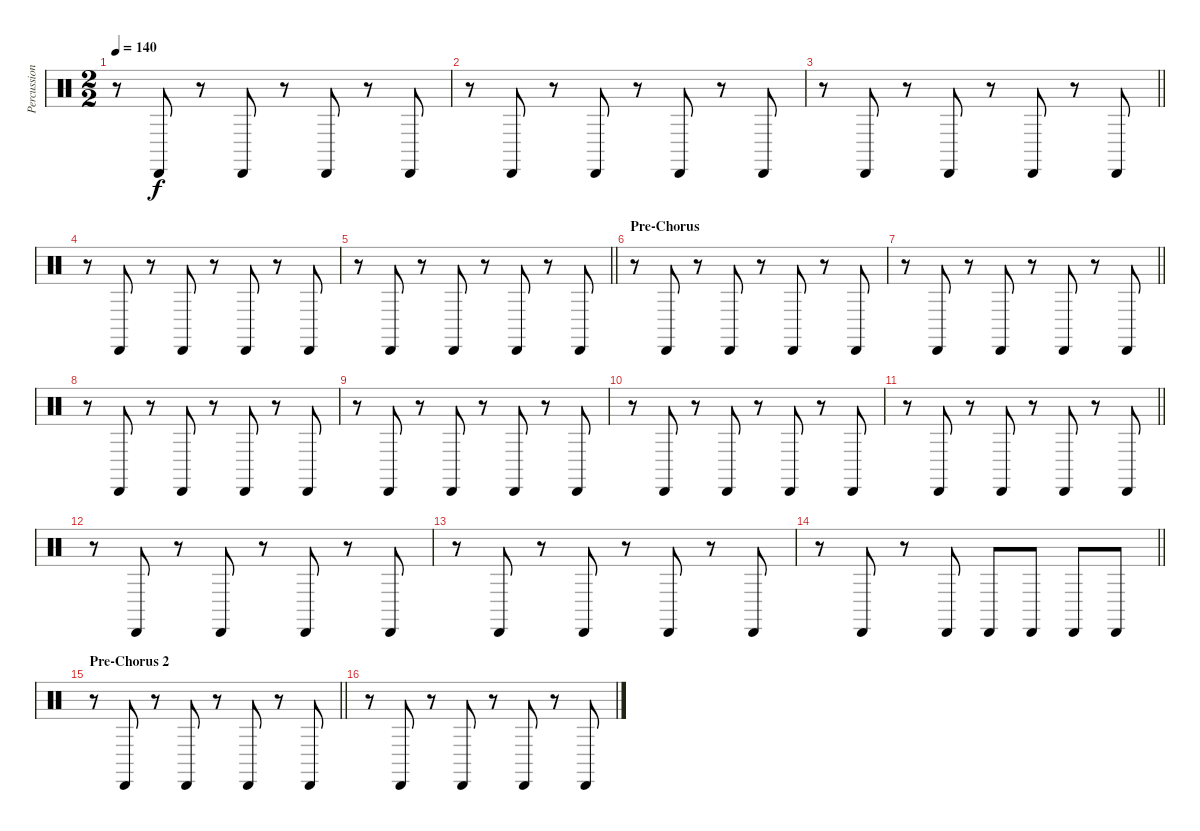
\track ("Percussion 2" "Percussion") {instrument percussion}
\staff {score}
\articulation defaults
\ts (2 2)
\tempo 140
\clef neutral
\ks c
r.8{dy f} "Cabasa (hit)".8 r.8 "Cabasa (hit)".8 r.8 "Cabasa (hit)".8 r.8 "Cabasa (hit)".8 |
r.8 "Cabasa (hit)".8 r.8 "Cabasa (hit)".8 r.8 "Cabasa (hit)".8 r.8 "Cabasa (hit)".8 |
\barLineRight lightlight
r.8 "Cabasa (hit)".8 r.8 "Cabasa (hit)".8 r.8 "Cabasa (hit)".8 r.8 "Cabasa (hit)".8 |
r.8 "Cabasa (hit)".8 r.8 "Cabasa (hit)".8 r.8 "Cabasa (hit)".8 r.8 "Cabasa (hit)".8 |
\barLineRight lightlight
r.8 "Cabasa (hit)".8 r.8 "Cabasa (hit)".8 r.8 "Cabasa (hit)".8 r.8 "Cabasa (hit)".8 |
\section ("" "Pre-Chorus")
r.8 "Cabasa (hit)".8 r.8 "Cabasa (hit)".8 r.8 "Cabasa (hit)".8 r.8 "Cabasa (hit)".8 |
\barLineRight lightlight
r.8 "Cabasa (hit)".8 r.8 "Cabasa (hit)".8 r.8 "Cabasa (hit)".8 r.8 "Cabasa (hit)".8 |
r.8 "Cabasa (hit)".8 r.8 "Cabasa (hit)".8 r.8 "Cabasa (hit)".8 r.8 "Cabasa (hit)".8 |
r.8 "Cabasa (hit)".8 r.8 "Cabasa (hit)".8 r.8 "Cabasa (hit)".8 r.8 "Cabasa (hit)".8 |
r.8 "Cabasa (hit)".8 r.8 "Cabasa (hit)".8 r.8 "Cabasa (hit)".8 r.8 "Cabasa (hit)".8 |
\barLineRight lightlight
r.8 "Cabasa (hit)".8 r.8 "Cabasa (hit)".8 r.8 "Cabasa (hit)".8 r.8 "Cabasa (hit)".8 |
r.8 "Cabasa (hit)".8 r.8 "Cabasa (hit)".8 r.8 "Cabasa (hit)".8 r.8 "Cabasa (hit)".8 |
r.8 "Cabasa (hit)".8 r.8 "Cabasa (hit)".8 r.8 "Cabasa (hit)".8 r.8 "Cabasa (hit)".8 |
\barLineRight lightlight
r.8 "Cabasa (hit)".8 r.8 "Cabasa (hit)".8 "Cabasa (hit)".8 "Cabasa (hit)".8 "Cabasa (hit)".8 "Cabasa (hit)".8 |
\section ("" "Pre-Chorus 2")
\barLineRight lightlight
r.8 "Cabasa (hit)".8 r.8 "Cabasa (hit)".8 r.8 "Cabasa (hit)".8 r.8 "Cabasa (hit)".8 |
r.8 "Cabasa (hit)".8 r.8 "Cabasa (hit)".8 r.8 "Cabasa (hit)".8 r.8 "Cabasa (hit)".8
